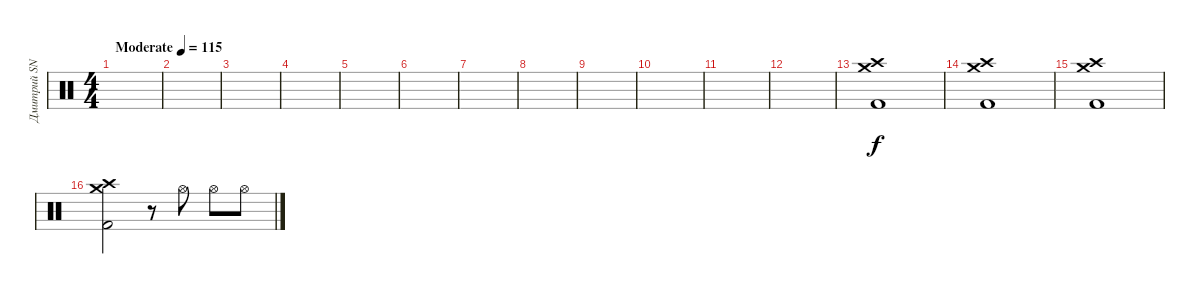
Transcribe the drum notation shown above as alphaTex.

\track ("Дмитрий SNAKE Хакимов" "Дмитрий SN") {instrument percussion}
\staff {score}
\articulation defaults
\ts (4 4)
\tempo (115 "Moderate")
\clef neutral
\ks c
|
|
|
|
|
|
|
|
|
|
|
|
("Crash high (hit)" "Crash medium (hit)" "Kick (hit) 2").1 |
("Crash high (hit)" "Crash medium (hit)" "Kick (hit) 2").1 |
("Crash high (hit)" "Crash medium (hit)" "Kick (hit) 2").1 |
("Crash high (hit)" "Crash medium (hit)" "Kick (hit) 2").2 r.8 "Hi-Hat (open)".8 "Hi-Hat (open)".8 "Hi-Hat (open)".8
